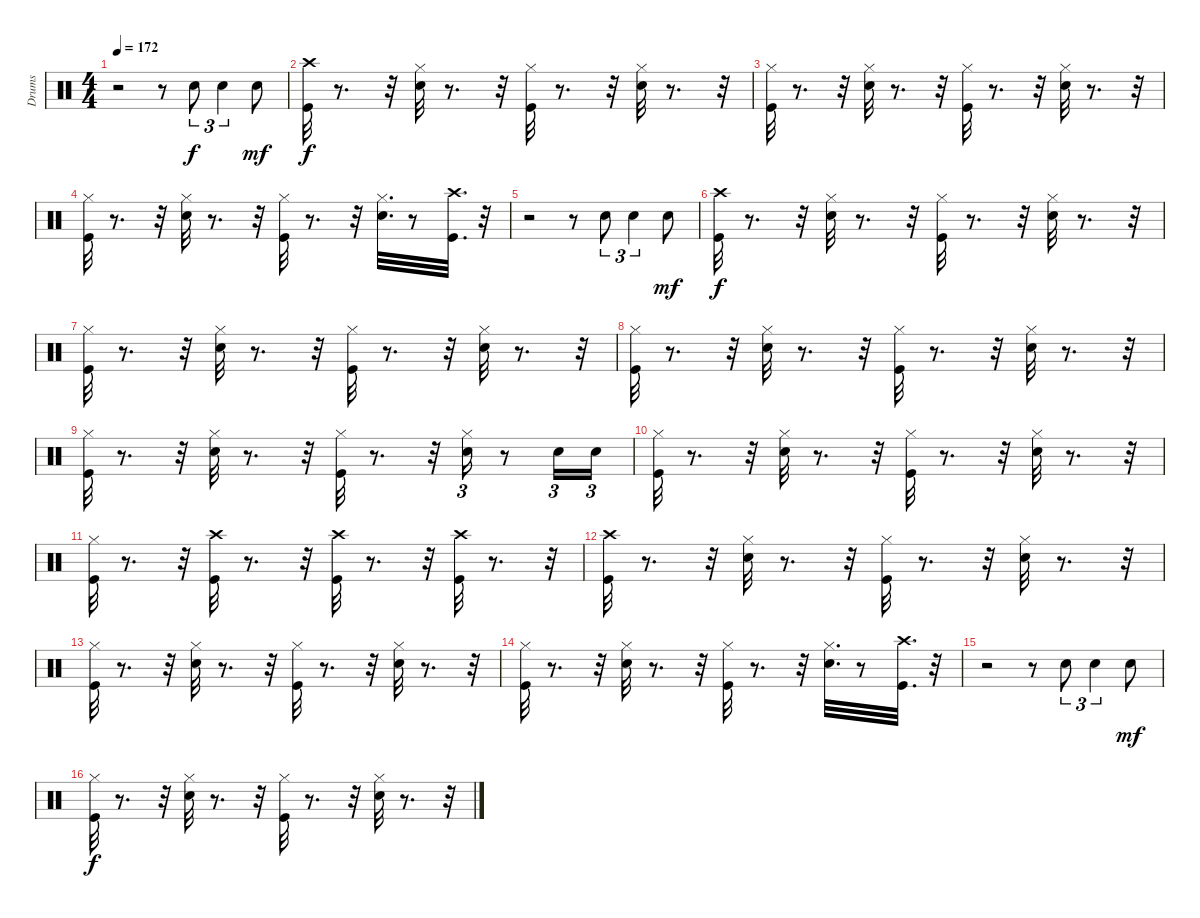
\track ("Drums" "Drums") {instrument percussion}
\staff {score}
\articulation defaults
\ts (4 4)
\tempo 172
\clef neutral
\ks c
r.2{dy f} r.8 "Electric Snare (hit)".8{tu (3 2)} "Electric Snare (hit)".4{tu (3 2)} "Electric Snare (hit)".8{dy mf} |
("Kick (hit)" "Crash high (hit)").32{dy f} r.8{d} r.32 ("Snare (hit) 2" "Hi-Hat (closed)").32 r.8{d} r.32 ("Kick (hit)" "Hi-Hat (closed)").32 r.8{d} r.32 ("Snare (hit) 2" "Hi-Hat (closed)").32 r.8{d} r.32 |
("Hi-Hat (closed)" "Kick (hit)").32 r.8{d} r.32 ("Hi-Hat (closed)" "Snare (hit) 2").32 r.8{d} r.32 ("Hi-Hat (closed)" "Kick (hit)").32 r.8{d} r.32 ("Hi-Hat (closed)" "Snare (hit) 2").32 r.8{d} r.32 |
("Hi-Hat (closed)" "Kick (hit)").32 r.8{d} r.32 ("Hi-Hat (closed)" "Snare (hit) 2").32 r.8{d} r.32 ("Kick (hit)" "Hi-Hat (closed)").32 r.8{d} r.32 ("Snare (hit) 2" "Hi-Hat (closed)").32{d} r.8 ("Crash high (hit)" "Kick (hit)").32{d} r.32 |
r.2 r.8 "Electric Snare (hit)".8{tu (3 2)} "Electric Snare (hit)".4{tu (3 2)} "Snare (hit) 2".8{dy mf} |
("Kick (hit)" "Crash high (hit)").32{dy f} r.8{d} r.32 ("Hi-Hat (closed)" "Snare (hit) 2").32 r.8{d} r.32 ("Hi-Hat (closed)" "Kick (hit)").32 r.8{d} r.32 ("Hi-Hat (closed)" "Snare (hit) 2").32 r.8{d} r.32 |
("Hi-Hat (closed)" "Kick (hit)").32 r.8{d} r.32 ("Hi-Hat (closed)" "Snare (hit) 2").32 r.8{d} r.32 ("Hi-Hat (closed)" "Kick (hit)").32 r.8{d} r.32 ("Hi-Hat (closed)" "Snare (hit) 2").32 r.8{d} r.32 |
("Hi-Hat (closed)" "Kick (hit)").32 r.8{d} r.32 ("Hi-Hat (closed)" "Snare (hit) 2").32 r.8{d} r.32 ("Hi-Hat (closed)" "Kick (hit)").32 r.8{d} r.32 ("Hi-Hat (closed)" "Snare (hit) 2").32 r.8{d} r.32 |
("Kick (hit)" "Hi-Hat (closed)").32 r.8{d} r.32 ("Hi-Hat (closed)" "Snare (hit) 2").32 r.8{d} r.32 ("Hi-Hat (closed)" "Kick (hit)").32 r.8{d} r.32 ("Hi-Hat (closed)" "Snare (hit) 2").16{tu (3 2)} r.8 "Snare (hit) 2".16{tu (3 2)} "Snare (hit) 2".16{tu (3 2)} |
("Hi-Hat (closed)" "Kick (hit)").32 r.8{d} r.32 ("Hi-Hat (closed)" "Snare (hit) 2").32 r.8{d} r.32 ("Hi-Hat (closed)" "Kick (hit)").32 r.8{d} r.32 ("Hi-Hat (closed)" "Snare (hit) 2").32 r.8{d} r.32 |
("Hi-Hat (closed)" "Kick (hit)").32 r.8{d} r.32 ("Crash high (hit)" "Kick (hit)").32 r.8{d} r.32 ("Crash high (hit)" "Kick (hit)").32 r.8{d} r.32 ("Crash high (hit)" "Kick (hit)").32 r.8{d} r.32 |
("Kick (hit)" "Crash high (hit)").32 r.8{d} r.32 ("Hi-Hat (closed)" "Snare (hit) 2").32 r.8{d} r.32 ("Hi-Hat (closed)" "Kick (hit)").32 r.8{d} r.32 ("Hi-Hat (closed)" "Snare (hit) 2").32 r.8{d} r.32 |
("Hi-Hat (closed)" "Kick (hit)").32 r.8{d} r.32 ("Hi-Hat (closed)" "Snare (hit) 2").32 r.8{d} r.32 ("Hi-Hat (closed)" "Kick (hit)").32 r.8{d} r.32 ("Hi-Hat (closed)" "Snare (hit) 2").32 r.8{d} r.32 |
("Hi-Hat (closed)" "Kick (hit)").32 r.8{d} r.32 ("Hi-Hat (closed)" "Snare (hit) 2").32 r.8{d} r.32 ("Kick (hit)" "Hi-Hat (closed)").32 r.8{d} r.32 ("Snare (hit) 2" "Hi-Hat (closed)").32{d} r.8 ("Crash high (hit)" "Kick (hit)").32{d} r.32 |
r.2 r.8 "Electric Snare (hit)".8{tu (3 2)} "Electric Snare (hit)".4{tu (3 2)} "Snare (hit) 2".8{dy mf} |
("Hi-Hat (closed)" "Kick (hit)").32{dy f} r.8{d} r.32 ("Hi-Hat (closed)" "Snare (hit) 2").32 r.8{d} r.32 ("Hi-Hat (closed)" "Kick (hit)").32 r.8{d} r.32 ("Hi-Hat (closed)" "Snare (hit) 2").32 r.8{d} r.32
